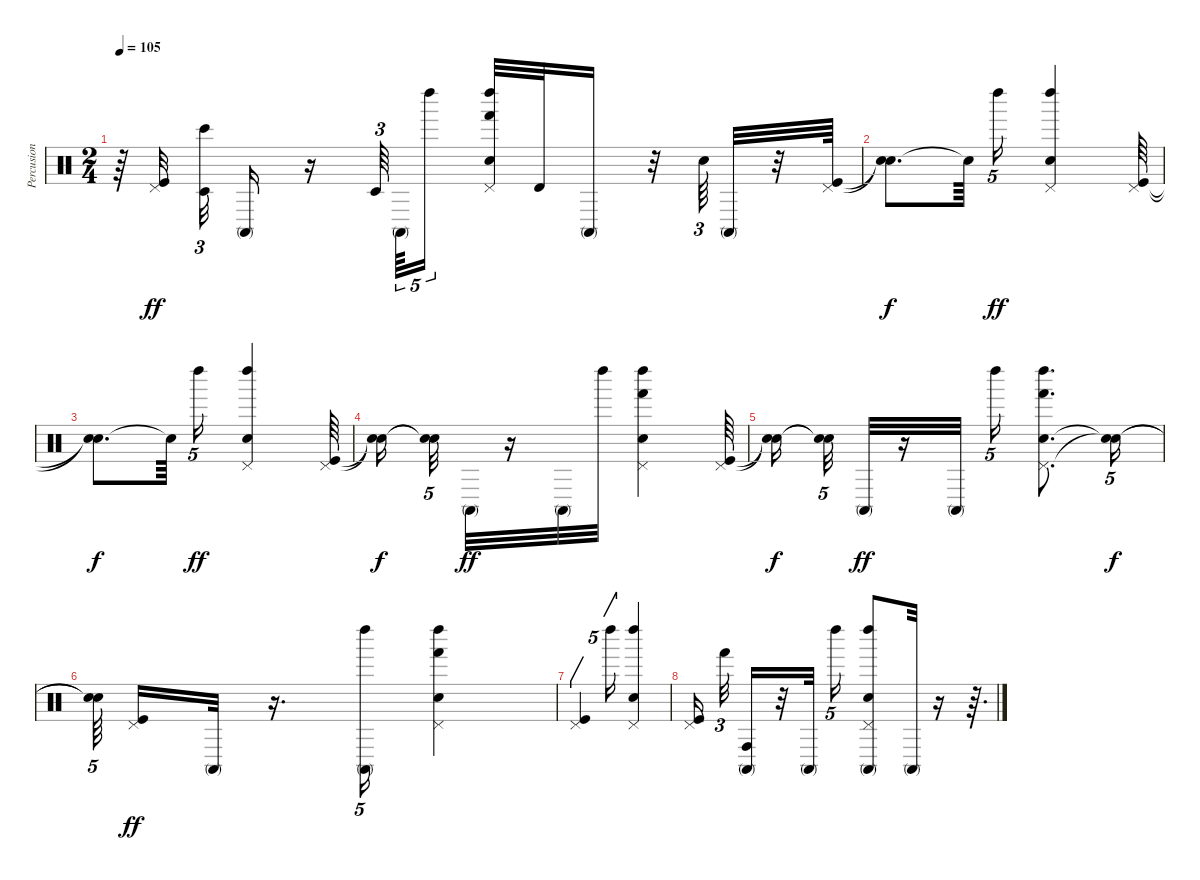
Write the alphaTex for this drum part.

\track ("Percusion" "Percusion") {instrument percussion}
\staff {score}
\articulation defaults
\ts (2 4)
\tempo 105
\clef neutral
\ks c
r.64{dy f} ("Kick (hit)" "Pedal Hi-Hat (hit)").32{dy ff beam splitsecondary} ("Timbale low (hit)" "Bongo High (hit)").32{tu (3 2)} "Conga high (mute)".16 r.16 "Timbale low (hit)".64{tu (3 2)} "Conga high (mute)".64{tu (5 4)} "Left Maraca (hit)".16{tu (5 4)} ("Pedal Hi-Hat (hit)" "Electric Snare (hit)" "Hand (hit)" "Left Maraca (hit)").32 "Timbale high (hit)".32 "Conga high (mute)".16 r.32 "Electric Snare (hit)".64{tu (3 2)} "Conga high (mute)".32 r.32 ("Pedal Hi-Hat (hit)" "Kick (hit)").64 |
("Snare (hit)"{t} "Snare (hit)"{t}).8{d dy f} "Snare (hit)"{t}.64{beam splitsecondary} "Left Maraca (hit)".16{tu (5 4) dy ff} ("Electric Snare (hit)" "Pedal Hi-Hat (hit)" "Left Maraca (hit)").4 ("Pedal Hi-Hat (hit)" "Kick (hit)").64 |
("Snare (hit)"{t} "Snare (hit)"{t}).8{d dy f} "Snare (hit)"{t}.64{beam splitsecondary} "Left Maraca (hit)".16{tu (5 4) dy ff} ("Pedal Hi-Hat (hit)" "Electric Snare (hit)" "Left Maraca (hit)").4 ("Kick (hit)" "Pedal Hi-Hat (hit)").64 |
("Snare (hit)"{t} "Snare (hit)"{t}).16{dy f beam splitsecondary} ("Snare (hit)"{t} "Snare (hit)"{t}).32{tu (5 4)} "Conga high (mute)".32{dy ff} r.16 "Conga high (mute)".32 "Left Maraca (hit)".32 ("Hand (hit)" "Electric Snare (hit)" "Pedal Hi-Hat (hit)" "Left Maraca (hit)").4 ("Pedal Hi-Hat (hit)" "Kick (hit)").64 |
("Snare (hit)"{t} "Snare (hit)"{t}).16{dy f beam splitsecondary} ("Snare (hit)"{t} "Snare (hit)"{t}).32{tu (5 4)} "Conga high (mute)".32{dy ff} r.16 "Conga high (mute)".32 "Left Maraca (hit)".16{tu (5 4)} ("Pedal Hi-Hat (hit)" "Electric Snare (hit)" "Hand (hit)" "Left Maraca (hit)").8{d} ("Snare (hit)"{t} "Snare (hit)"{t}).16{tu (5 4) dy f} |
("Snare (hit)"{t} "Snare (hit)"{t}).64{tu (5 4) beam splitsecondary} ("Kick (hit)" "Pedal Hi-Hat (hit)").16{dy ff} "Conga high (mute)".32 r.16{d} ("Conga high (mute)" "Left Maraca (hit)").16{tu (5 4)} ("Electric Snare (hit)" "Pedal Hi-Hat (hit)" "Left Maraca (hit)" "Hand (hit)").4 |
("Pedal Hi-Hat (hit)" "Kick (hit)").4{tu (5 4)} "Left Maraca (hit)".16{tu (5 4)} ("Electric Snare (hit)" "Pedal Hi-Hat (hit)" "Left Maraca (hit)").4 |
("Kick (hit)" "Pedal Hi-Hat (hit)").16{beam splitsecondary} "Hand (hit)".32{tu (3 2)} ("Conga high (mute)" "Conga high (hit)").16 r.32 "Conga high (mute)".32 "Left Maraca (hit)".16{tu (5 4)} ("Pedal Hi-Hat (hit)" "Electric Snare (hit)" "Left Maraca (hit)" "Conga high (mute)").8 "Conga high (mute)".32 r.16 r.64{d}
